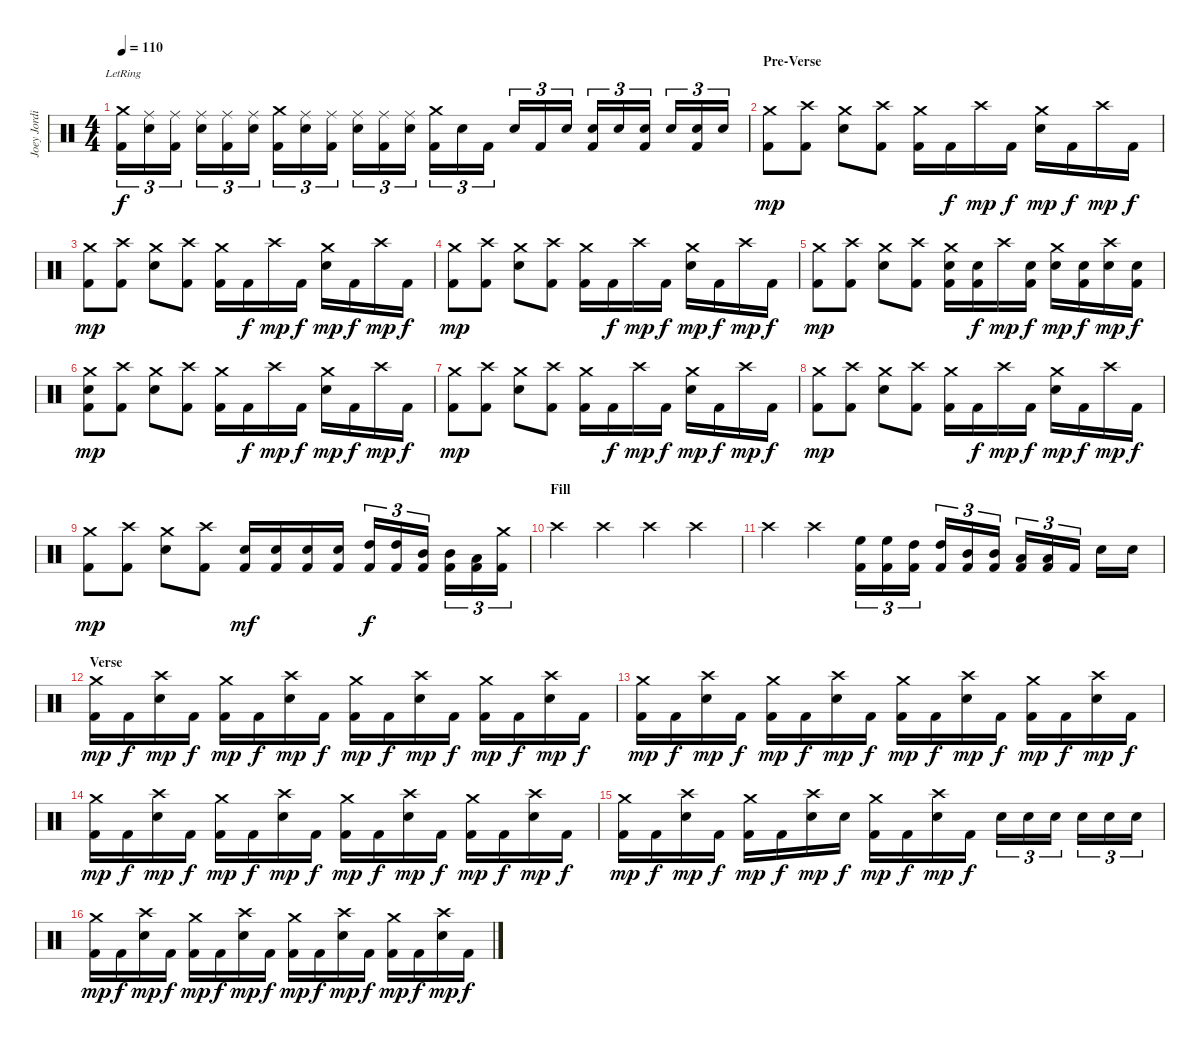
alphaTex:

\track ("Joey Jordison" "Joey Jordi") {instrument percussion}
\staff {score}
\articulation defaults
\ts (4 4)
\tempo 110
\clef neutral
\ks c
("Crash medium (hit)"{lr} "Kick (hit) 2").16{tu (3 2) dy f} ("Ride (middle)" "Snare (hit) 2").16{tu (3 2)} ("Ride (middle)" "Kick (hit) 2").16{tu (3 2)} ("Ride (middle)" "Snare (hit) 2").16{tu (3 2)} ("Ride (middle)" "Kick (hit) 2").16{tu (3 2)} ("Ride (middle)" "Snare (hit) 2").16{tu (3 2)} ("Crash medium (hit)" "Kick (hit) 2").16{tu (3 2)} ("Ride (middle)" "Snare (hit) 2").16{tu (3 2)} ("Ride (middle)" "Kick (hit) 2").16{tu (3 2)} ("Ride (middle)" "Snare (hit) 2").16{tu (3 2)} ("Ride (middle)" "Kick (hit) 2").16{tu (3 2)} ("Ride (middle)" "Snare (hit) 2").16{tu (3 2)} ("Crash medium (hit)" "Kick (hit) 2").16{tu (3 2)} "Snare (hit) 2".16{tu (3 2)} "Kick (hit) 2".16{tu (3 2)} "Snare (hit) 2".16{tu (3 2)} "Kick (hit) 2".16{tu (3 2)} "Snare (hit) 2".16{tu (3 2)} ("Snare (hit) 2" "Kick (hit) 2").16{tu (3 2)} "Snare (hit) 2".16{tu (3 2)} ("Snare (hit) 2" "Kick (hit) 2").16{tu (3 2)} "Snare (hit) 2".16{tu (3 2)} ("Snare (hit) 2" "Kick (hit) 2").16{tu (3 2)} "Snare (hit) 2".16{tu (3 2)} |
\section ("" "Pre-Verse")
("Crash medium (hit)" "Kick (hit) 2").8{dy mp} ("Crash high (hit)" "Kick (hit) 2").8 ("Crash medium (hit)" "Snare (hit) 2").8 ("Crash high (hit)" "Kick (hit) 2").8 ("Crash medium (hit)" "Kick (hit) 2").16 "Kick (hit) 2".16{dy f} "Crash high (hit)".16{dy mp} "Kick (hit) 2".16{dy f} ("Crash medium (hit)" "Snare (hit) 2").16{dy mp} "Kick (hit) 2".16{dy f} "Crash high (hit)".16{dy mp} "Kick (hit) 2".16{dy f} |
("Crash medium (hit)" "Kick (hit) 2").8{dy mp} ("Crash high (hit)" "Kick (hit) 2").8 ("Crash medium (hit)" "Snare (hit) 2").8 ("Crash high (hit)" "Kick (hit) 2").8 ("Crash medium (hit)" "Kick (hit) 2").16 "Kick (hit) 2".16{dy f} "Crash high (hit)".16{dy mp} "Kick (hit) 2".16{dy f} ("Crash medium (hit)" "Snare (hit) 2").16{dy mp} "Kick (hit) 2".16{dy f} "Crash high (hit)".16{dy mp} "Kick (hit) 2".16{dy f} |
("Crash medium (hit)" "Kick (hit) 2").8{dy mp} ("Crash high (hit)" "Kick (hit) 2").8 ("Crash medium (hit)" "Snare (hit) 2").8 ("Crash high (hit)" "Kick (hit) 2").8 ("Crash medium (hit)" "Kick (hit) 2").16 "Kick (hit) 2".16{dy f} "Crash high (hit)".16{dy mp} "Kick (hit) 2".16{dy f} ("Crash medium (hit)" "Snare (hit) 2").16{dy mp} "Kick (hit) 2".16{dy f} "Crash high (hit)".16{dy mp} "Kick (hit) 2".16{dy f} |
("Crash medium (hit)" "Kick (hit) 2").8{dy mp} ("Crash high (hit)" "Kick (hit) 2").8 ("Crash medium (hit)" "Snare (hit) 2").8 ("Crash high (hit)" "Kick (hit) 2").8 ("Crash medium (hit)" "Snare (hit) 2" "Kick (hit) 2").16 ("Snare (hit) 2" "Kick (hit) 2").16{dy f} "Crash high (hit)".16{dy mp} ("Snare (hit) 2" "Kick (hit) 2").16{dy f} ("Crash medium (hit)" "Snare (hit) 2").16{dy mp} ("Snare (hit) 2" "Kick (hit) 2").16{dy f} ("Crash high (hit)" "Snare (hit) 2").16{dy mp} ("Snare (hit) 2" "Kick (hit) 2").16{dy f} |
("Crash medium (hit)" "Snare (hit) 2" "Kick (hit) 2").8{dy mp} ("Crash high (hit)" "Kick (hit) 2").8 ("Crash medium (hit)" "Snare (hit) 2").8 ("Crash high (hit)" "Kick (hit) 2").8 ("Crash medium (hit)" "Kick (hit) 2").16 "Kick (hit) 2".16{dy f} "Crash high (hit)".16{dy mp} "Kick (hit) 2".16{dy f} ("Crash medium (hit)" "Snare (hit) 2").16{dy mp} "Kick (hit) 2".16{dy f} "Crash high (hit)".16{dy mp} "Kick (hit) 2".16{dy f} |
("Crash medium (hit)" "Kick (hit) 2").8{dy mp} ("Crash high (hit)" "Kick (hit) 2").8 ("Crash medium (hit)" "Snare (hit) 2").8 ("Crash high (hit)" "Kick (hit) 2").8 ("Crash medium (hit)" "Kick (hit) 2").16 "Kick (hit) 2".16{dy f} "Crash high (hit)".16{dy mp} "Kick (hit) 2".16{dy f} ("Crash medium (hit)" "Snare (hit) 2").16{dy mp} "Kick (hit) 2".16{dy f} "Crash high (hit)".16{dy mp} "Kick (hit) 2".16{dy f} |
("Crash medium (hit)" "Kick (hit) 2").8{dy mp} ("Crash high (hit)" "Kick (hit) 2").8 ("Crash medium (hit)" "Snare (hit) 2").8 ("Crash high (hit)" "Kick (hit) 2").8 ("Crash medium (hit)" "Kick (hit) 2").16 "Kick (hit) 2".16{dy f} "Crash high (hit)".16{dy mp} "Kick (hit) 2".16{dy f} ("Crash medium (hit)" "Snare (hit) 2").16{dy mp} "Kick (hit) 2".16{dy f} "Crash high (hit)".16{dy mp} "Kick (hit) 2".16{dy f} |
("Crash medium (hit)" "Kick (hit) 2").8{dy mp} ("Crash high (hit)" "Kick (hit) 2").8 ("Crash medium (hit)" "Snare (hit) 2").8 ("Crash high (hit)" "Kick (hit) 2").8 ("Snare (hit) 2" "Kick (hit) 2").16{dy mf} ("Snare (hit) 2" "Kick (hit) 2").16 ("Snare (hit) 2" "Kick (hit) 2").16 ("Snare (hit) 2" "Kick (hit) 2").16 ("High Tom (hit)" "Kick (hit) 2").16{tu (3 2) dy f} ("High Tom (hit)" "Kick (hit) 2").16{tu (3 2)} ("Mid Tom (hit)" "Kick (hit) 2").16{tu (3 2)} ("Mid Tom (hit)" "Kick (hit) 2").16{tu (3 2)} ("Low Tom (hit)" "Kick (hit) 2").16{tu (3 2)} ("Crash medium (hit)" "Kick (hit) 2").16{tu (3 2)} |
\section ("" "Fill")
"Crash high (hit)".4 "Crash high (hit)".4 "Crash high (hit)".4 "Crash high (hit)".4 |
"Crash high (hit)".4 "Crash high (hit)".4 ("High Floor Tom (hit)" "Kick (hit) 2").16{tu (3 2)} ("High Floor Tom (hit)" "Kick (hit) 2").16{tu (3 2)} ("High Tom (hit)" "Kick (hit) 2").16{tu (3 2)} ("High Tom (hit)" "Kick (hit) 2").16{tu (3 2)} ("Mid Tom (hit)" "Kick (hit) 2").16{tu (3 2)} ("Mid Tom (hit)" "Kick (hit) 2").16{tu (3 2)} ("Low Tom (hit)" "Kick (hit) 2").16{tu (3 2)} ("Low Tom (hit)" "Kick (hit) 2").16{tu (3 2)} "Kick (hit) 2".16{tu (3 2)} "Snare (hit) 2".16 "Snare (hit) 2".16 |
\section ("" "Verse")
("Crash medium (hit)" "Kick (hit) 2").16{dy mp} "Kick (hit) 2".16{dy f} ("Crash high (hit)" "Snare (hit) 2").16{dy mp} "Kick (hit) 2".16{dy f} ("Crash medium (hit)" "Kick (hit) 2").16{dy mp} "Kick (hit) 2".16{dy f} ("Crash high (hit)" "Snare (hit) 2").16{dy mp} "Kick (hit) 2".16{dy f} ("Crash medium (hit)" "Kick (hit) 2").16{dy mp} "Kick (hit) 2".16{dy f} ("Crash high (hit)" "Snare (hit) 2").16{dy mp} "Kick (hit) 2".16{dy f} ("Crash medium (hit)" "Kick (hit) 2").16{dy mp} "Kick (hit) 2".16{dy f} ("Crash high (hit)" "Snare (hit) 2").16{dy mp} "Kick (hit) 2".16{dy f} |
("Crash medium (hit)" "Kick (hit) 2").16{dy mp} "Kick (hit) 2".16{dy f} ("Crash high (hit)" "Snare (hit) 2").16{dy mp} "Kick (hit) 2".16{dy f} ("Crash medium (hit)" "Kick (hit) 2").16{dy mp} "Kick (hit) 2".16{dy f} ("Crash high (hit)" "Snare (hit) 2").16{dy mp} "Kick (hit) 2".16{dy f} ("Crash medium (hit)" "Kick (hit) 2").16{dy mp} "Kick (hit) 2".16{dy f} ("Crash high (hit)" "Snare (hit) 2").16{dy mp} "Kick (hit) 2".16{dy f} ("Crash medium (hit)" "Kick (hit) 2").16{dy mp} "Kick (hit) 2".16{dy f} ("Crash high (hit)" "Snare (hit) 2").16{dy mp} "Kick (hit) 2".16{dy f} |
("Crash medium (hit)" "Kick (hit) 2").16{dy mp} "Kick (hit) 2".16{dy f} ("Crash high (hit)" "Snare (hit) 2").16{dy mp} "Kick (hit) 2".16{dy f} ("Crash medium (hit)" "Kick (hit) 2").16{dy mp} "Kick (hit) 2".16{dy f} ("Crash high (hit)" "Snare (hit) 2").16{dy mp} "Kick (hit) 2".16{dy f} ("Crash medium (hit)" "Kick (hit) 2").16{dy mp} "Kick (hit) 2".16{dy f} ("Crash high (hit)" "Snare (hit) 2").16{dy mp} "Kick (hit) 2".16{dy f} ("Crash medium (hit)" "Kick (hit) 2").16{dy mp} "Kick (hit) 2".16{dy f} ("Crash high (hit)" "Snare (hit) 2").16{dy mp} "Kick (hit) 2".16{dy f} |
("Crash medium (hit)" "Kick (hit) 2").16{dy mp} "Kick (hit) 2".16{dy f} ("Crash high (hit)" "Snare (hit) 2").16{dy mp} "Kick (hit) 2".16{dy f} ("Crash medium (hit)" "Kick (hit) 2").16{dy mp} "Kick (hit) 2".16{dy f} ("Crash high (hit)" "Snare (hit) 2").16{dy mp} "Snare (hit) 2".16{dy f} ("Crash medium (hit)" "Kick (hit) 2").16{dy mp} "Kick (hit) 2".16{dy f} ("Crash high (hit)" "Snare (hit) 2").16{dy mp} "Kick (hit) 2".16{dy f} "Snare (hit) 2".16{tu (3 2)} "Snare (hit) 2".16{tu (3 2)} "Snare (hit) 2".16{tu (3 2)} "Snare (hit) 2".16{tu (3 2)} "Snare (hit) 2".16{tu (3 2)} "Snare (hit) 2".16{tu (3 2)} |
("Crash medium (hit)" "Kick (hit) 2").16{dy mp} "Kick (hit) 2".16{dy f} ("Crash high (hit)" "Snare (hit) 2").16{dy mp} "Kick (hit) 2".16{dy f} ("Crash medium (hit)" "Kick (hit) 2").16{dy mp} "Kick (hit) 2".16{dy f} ("Crash high (hit)" "Snare (hit) 2").16{dy mp} "Kick (hit) 2".16{dy f} ("Crash medium (hit)" "Kick (hit) 2").16{dy mp} "Kick (hit) 2".16{dy f} ("Crash high (hit)" "Snare (hit) 2").16{dy mp} "Kick (hit) 2".16{dy f} ("Crash medium (hit)" "Kick (hit) 2").16{dy mp} "Kick (hit) 2".16{dy f} ("Crash high (hit)" "Snare (hit) 2").16{dy mp} "Kick (hit) 2".16{dy f}
